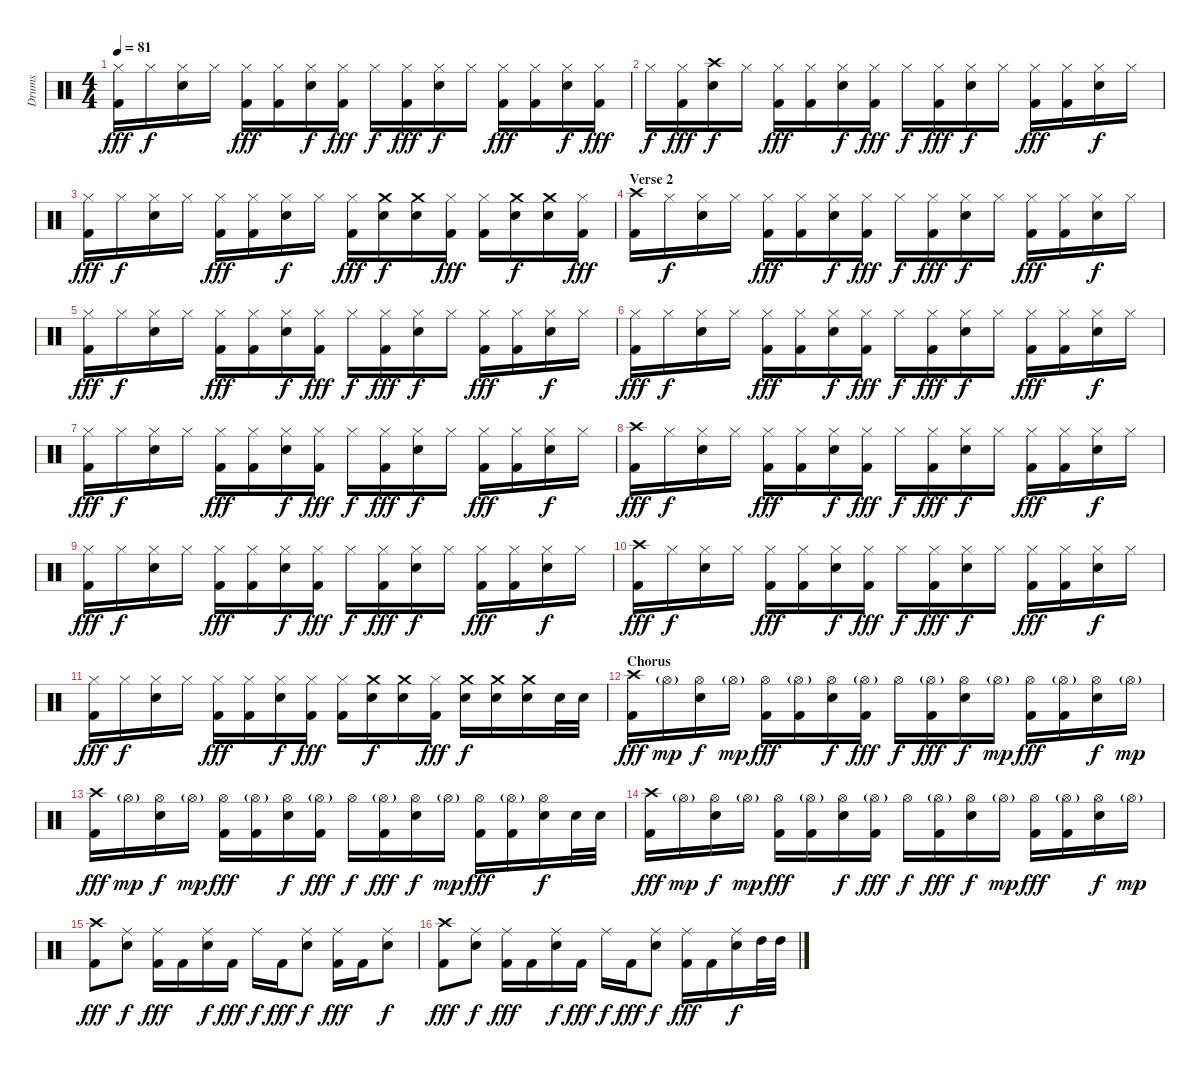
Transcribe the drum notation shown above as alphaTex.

\track ("Drums" "Drums") {instrument percussion}
\staff {score}
\articulation defaults
\ts (4 4)
\tempo 81
\clef neutral
\ks c
("Hi-Hat (closed)" "Kick (hit) 2").16{dy fff} "Hi-Hat (closed)".16{dy f} ("Hi-Hat (closed)" "Snare (hit) 2").16 "Hi-Hat (closed)".16 ("Hi-Hat (closed)" "Kick (hit) 2").16{dy fff} ("Hi-Hat (closed)" "Kick (hit) 2").16 ("Hi-Hat (closed)" "Snare (hit) 2").16{dy f} ("Hi-Hat (closed)" "Kick (hit) 2").16{dy fff} "Hi-Hat (closed)".16{dy f} ("Hi-Hat (closed)" "Kick (hit) 2").16{dy fff} ("Hi-Hat (closed)" "Snare (hit) 2").16{dy f} "Hi-Hat (closed)".16 ("Hi-Hat (closed)" "Kick (hit) 2").16{dy fff} ("Hi-Hat (closed)" "Kick (hit) 2").16 ("Hi-Hat (closed)" "Snare (hit) 2").16{dy f} ("Hi-Hat (closed)" "Kick (hit) 2").16{dy fff} |
"Hi-Hat (closed)".16{dy f} ("Hi-Hat (closed)" "Kick (hit) 2").16{dy fff} ("Crash high (hit)" "Snare (hit) 2").16{dy f} "Hi-Hat (closed)".16 ("Hi-Hat (closed)" "Kick (hit) 2").16{dy fff} ("Hi-Hat (closed)" "Kick (hit) 2").16 ("Hi-Hat (closed)" "Snare (hit) 2").16{dy f} ("Hi-Hat (closed)" "Kick (hit) 2").16{dy fff} "Hi-Hat (closed)".16{dy f} ("Hi-Hat (closed)" "Kick (hit) 2").16{dy fff} ("Hi-Hat (closed)" "Snare (hit) 2").16{dy f} "Hi-Hat (closed)".16 ("Hi-Hat (closed)" "Kick (hit) 2").16{dy fff} ("Hi-Hat (closed)" "Kick (hit) 2").16 ("Hi-Hat (closed)" "Snare (hit) 2").16{dy f} "Hi-Hat (closed)".16 |
("Hi-Hat (closed)" "Kick (hit) 2").16{dy fff} "Hi-Hat (closed)".16{dy f} ("Hi-Hat (closed)" "Snare (hit) 2").16 "Hi-Hat (closed)".16 ("Hi-Hat (closed)" "Kick (hit) 2").16{dy fff} ("Hi-Hat (closed)" "Kick (hit) 2").16 ("Hi-Hat (closed)" "Snare (hit) 2").16{dy f} "Hi-Hat (closed)".16 ("Hi-Hat (closed)" "Kick (hit) 2").16{dy fff} ("Crash medium (hit)" "Snare (hit) 2").16{dy f} ("Crash medium (hit)" "Snare (hit) 2").16 ("Hi-Hat (closed)" "Kick (hit) 2").16{dy fff} ("Hi-Hat (closed)" "Kick (hit) 2").16 ("Crash medium (hit)" "Snare (hit) 2").16{dy f} ("Crash medium (hit)" "Snare (hit) 2").16 ("Hi-Hat (closed)" "Kick (hit) 2").16{dy fff} |
\section ("" "Verse 2")
("Crash high (hit)" "Kick (hit) 2").16 "Hi-Hat (closed)".16{dy f} ("Hi-Hat (closed)" "Snare (hit) 2").16 "Hi-Hat (closed)".16 ("Hi-Hat (closed)" "Kick (hit) 2").16{dy fff} ("Hi-Hat (closed)" "Kick (hit) 2").16 ("Hi-Hat (closed)" "Snare (hit) 2").16{dy f} ("Hi-Hat (closed)" "Kick (hit) 2").16{dy fff} "Hi-Hat (closed)".16{dy f} ("Hi-Hat (closed)" "Kick (hit) 2").16{dy fff} ("Hi-Hat (closed)" "Snare (hit) 2").16{dy f} "Hi-Hat (closed)".16 ("Hi-Hat (closed)" "Kick (hit) 2").16{dy fff} ("Hi-Hat (closed)" "Kick (hit) 2").16 ("Hi-Hat (closed)" "Snare (hit) 2").16{dy f} "Hi-Hat (closed)".16 |
("Hi-Hat (closed)" "Kick (hit) 2").16{dy fff} "Hi-Hat (closed)".16{dy f} ("Hi-Hat (closed)" "Snare (hit) 2").16 "Hi-Hat (closed)".16 ("Hi-Hat (closed)" "Kick (hit) 2").16{dy fff} ("Hi-Hat (closed)" "Kick (hit) 2").16 ("Hi-Hat (closed)" "Snare (hit) 2").16{dy f} ("Hi-Hat (closed)" "Kick (hit) 2").16{dy fff} "Hi-Hat (closed)".16{dy f} ("Hi-Hat (closed)" "Kick (hit) 2").16{dy fff} ("Hi-Hat (closed)" "Snare (hit) 2").16{dy f} "Hi-Hat (closed)".16 ("Hi-Hat (closed)" "Kick (hit) 2").16{dy fff} ("Hi-Hat (closed)" "Kick (hit) 2").16 ("Hi-Hat (closed)" "Snare (hit) 2").16{dy f} "Hi-Hat (closed)".16 |
("Hi-Hat (closed)" "Kick (hit) 2").16{dy fff} "Hi-Hat (closed)".16{dy f} ("Hi-Hat (closed)" "Snare (hit) 2").16 "Hi-Hat (closed)".16 ("Hi-Hat (closed)" "Kick (hit) 2").16{dy fff} ("Hi-Hat (closed)" "Kick (hit) 2").16 ("Hi-Hat (closed)" "Snare (hit) 2").16{dy f} ("Hi-Hat (closed)" "Kick (hit) 2").16{dy fff} "Hi-Hat (closed)".16{dy f} ("Hi-Hat (closed)" "Kick (hit) 2").16{dy fff} ("Hi-Hat (closed)" "Snare (hit) 2").16{dy f} "Hi-Hat (closed)".16 ("Hi-Hat (closed)" "Kick (hit) 2").16{dy fff} ("Hi-Hat (closed)" "Kick (hit) 2").16 ("Hi-Hat (closed)" "Snare (hit) 2").16{dy f} "Hi-Hat (closed)".16 |
("Hi-Hat (closed)" "Kick (hit) 2").16{dy fff} "Hi-Hat (closed)".16{dy f} ("Hi-Hat (closed)" "Snare (hit) 2").16 "Hi-Hat (closed)".16 ("Hi-Hat (closed)" "Kick (hit) 2").16{dy fff} ("Hi-Hat (closed)" "Kick (hit) 2").16 ("Hi-Hat (closed)" "Snare (hit) 2").16{dy f} ("Hi-Hat (closed)" "Kick (hit) 2").16{dy fff} "Hi-Hat (closed)".16{dy f} ("Hi-Hat (closed)" "Kick (hit) 2").16{dy fff} ("Hi-Hat (closed)" "Snare (hit) 2").16{dy f} "Hi-Hat (closed)".16 ("Hi-Hat (closed)" "Kick (hit) 2").16{dy fff} ("Hi-Hat (closed)" "Kick (hit) 2").16 ("Hi-Hat (closed)" "Snare (hit) 2").16{dy f} "Hi-Hat (closed)".16 |
("Crash high (hit)" "Kick (hit) 2").16{dy fff} "Hi-Hat (closed)".16{dy f} ("Hi-Hat (closed)" "Snare (hit) 2").16 "Hi-Hat (closed)".16 ("Hi-Hat (closed)" "Kick (hit) 2").16{dy fff} ("Hi-Hat (closed)" "Kick (hit) 2").16 ("Hi-Hat (closed)" "Snare (hit) 2").16{dy f} ("Hi-Hat (closed)" "Kick (hit) 2").16{dy fff} "Hi-Hat (closed)".16{dy f} ("Hi-Hat (closed)" "Kick (hit) 2").16{dy fff} ("Hi-Hat (closed)" "Snare (hit) 2").16{dy f} "Hi-Hat (closed)".16 ("Hi-Hat (closed)" "Kick (hit) 2").16{dy fff} ("Hi-Hat (closed)" "Kick (hit) 2").16 ("Hi-Hat (closed)" "Snare (hit) 2").16{dy f} "Hi-Hat (closed)".16 |
("Hi-Hat (closed)" "Kick (hit) 2").16{dy fff} "Hi-Hat (closed)".16{dy f} ("Hi-Hat (closed)" "Snare (hit) 2").16 "Hi-Hat (closed)".16 ("Hi-Hat (closed)" "Kick (hit) 2").16{dy fff} ("Hi-Hat (closed)" "Kick (hit) 2").16 ("Hi-Hat (closed)" "Snare (hit) 2").16{dy f} ("Hi-Hat (closed)" "Kick (hit) 2").16{dy fff} "Hi-Hat (closed)".16{dy f} ("Hi-Hat (closed)" "Kick (hit) 2").16{dy fff} ("Hi-Hat (closed)" "Snare (hit) 2").16{dy f} "Hi-Hat (closed)".16 ("Hi-Hat (closed)" "Kick (hit) 2").16{dy fff} ("Hi-Hat (closed)" "Kick (hit) 2").16 ("Hi-Hat (closed)" "Snare (hit) 2").16{dy f} "Hi-Hat (closed)".16 |
("Crash high (hit)" "Kick (hit) 2").16{dy fff} "Hi-Hat (closed)".16{dy f} ("Hi-Hat (closed)" "Snare (hit) 2").16 "Hi-Hat (closed)".16 ("Hi-Hat (closed)" "Kick (hit) 2").16{dy fff} ("Hi-Hat (closed)" "Kick (hit) 2").16 ("Hi-Hat (closed)" "Snare (hit) 2").16{dy f} ("Hi-Hat (closed)" "Kick (hit) 2").16{dy fff} "Hi-Hat (closed)".16{dy f} ("Hi-Hat (closed)" "Kick (hit) 2").16{dy fff} ("Hi-Hat (closed)" "Snare (hit) 2").16{dy f} "Hi-Hat (closed)".16 ("Hi-Hat (closed)" "Kick (hit) 2").16{dy fff} ("Hi-Hat (closed)" "Kick (hit) 2").16 ("Hi-Hat (closed)" "Snare (hit) 2").16{dy f} "Hi-Hat (closed)".16 |
("Hi-Hat (closed)" "Kick (hit) 2").16{dy fff} "Hi-Hat (closed)".16{dy f} ("Hi-Hat (closed)" "Snare (hit) 2").16 "Hi-Hat (closed)".16 ("Hi-Hat (closed)" "Kick (hit) 2").16{dy fff} ("Hi-Hat (closed)" "Kick (hit) 2").16 ("Hi-Hat (closed)" "Snare (hit) 2").16{dy f} ("Hi-Hat (closed)" "Kick (hit) 2").16{dy fff} ("Hi-Hat (closed)" "Kick (hit) 2").16 ("Crash medium (hit)" "Snare (hit) 2").16{dy f} ("Crash medium (hit)" "Snare (hit) 2").16 ("Hi-Hat (closed)" "Kick (hit) 2").16{dy fff} ("Crash medium (hit)" "Snare (hit) 2").16{dy f} ("Crash medium (hit)" "Snare (hit) 2").16 ("Crash medium (hit)" "Snare (hit) 2").16 "Snare (hit) 2".32 "Snare (hit) 2".32 |
\section ("" "Chorus")
("Crash high (hit)" "Kick (hit) 2").16{dy fff} "Hi-Hat (open)"{g}.16{dy mp} ("Hi-Hat (open)" "Snare (hit) 2").16{dy f} "Hi-Hat (open)"{g}.16{dy mp} ("Hi-Hat (open)" "Kick (hit) 2").16{dy fff} ("Hi-Hat (open)"{g} "Kick (hit) 2").16 ("Hi-Hat (open)" "Snare (hit) 2").16{dy f} ("Hi-Hat (open)"{g} "Kick (hit) 2").16{dy fff} "Hi-Hat (open)".16{dy f} ("Hi-Hat (open)"{g} "Kick (hit) 2").16{dy fff} ("Hi-Hat (open)" "Snare (hit) 2").16{dy f} "Hi-Hat (open)"{g}.16{dy mp} ("Hi-Hat (open)" "Kick (hit) 2").16{dy fff} ("Hi-Hat (open)"{g} "Kick (hit) 2").16 ("Hi-Hat (open)" "Snare (hit) 2").16{dy f} "Hi-Hat (open)"{g}.16{dy mp} |
("Crash high (hit)" "Kick (hit) 2").16{dy fff} "Hi-Hat (open)"{g}.16{dy mp} ("Hi-Hat (open)" "Snare (hit) 2").16{dy f} "Hi-Hat (open)"{g}.16{dy mp} ("Hi-Hat (open)" "Kick (hit) 2").16{dy fff} ("Hi-Hat (open)"{g} "Kick (hit) 2").16 ("Hi-Hat (open)" "Snare (hit) 2").16{dy f} ("Hi-Hat (open)"{g} "Kick (hit) 2").16{dy fff} "Hi-Hat (open)".16{dy f} ("Hi-Hat (open)"{g} "Kick (hit) 2").16{dy fff} ("Hi-Hat (open)" "Snare (hit) 2").16{dy f} "Hi-Hat (open)"{g}.16{dy mp} ("Hi-Hat (open)" "Kick (hit) 2").16{dy fff} ("Hi-Hat (open)"{g} "Kick (hit) 2").16 ("Hi-Hat (open)" "Snare (hit) 2").16{dy f} "Snare (hit) 2".32 "Snare (hit) 2".32 |
("Crash high (hit)" "Kick (hit) 2").16{dy fff} "Hi-Hat (open)"{g}.16{dy mp} ("Hi-Hat (open)" "Snare (hit) 2").16{dy f} "Hi-Hat (open)"{g}.16{dy mp} ("Hi-Hat (open)" "Kick (hit) 2").16{dy fff} ("Hi-Hat (open)"{g} "Kick (hit) 2").16 ("Hi-Hat (open)" "Snare (hit) 2").16{dy f} ("Hi-Hat (open)"{g} "Kick (hit) 2").16{dy fff} "Hi-Hat (open)".16{dy f} ("Hi-Hat (open)"{g} "Kick (hit) 2").16{dy fff} ("Hi-Hat (open)" "Snare (hit) 2").16{dy f} "Hi-Hat (open)"{g}.16{dy mp} ("Hi-Hat (open)" "Kick (hit) 2").16{dy fff} ("Hi-Hat (open)"{g} "Kick (hit) 2").16 ("Hi-Hat (open)" "Snare (hit) 2").16{dy f} "Hi-Hat (open)"{g}.16{dy mp} |
("Crash high (hit)" "Kick (hit) 2").8{dy fff} ("Ride (middle)" "Snare (hit) 2").8{dy f} ("Ride (middle)" "Kick (hit) 2").16{dy fff} "Kick (hit) 2".16 ("Ride (middle)" "Snare (hit) 2").16{dy f} "Kick (hit) 2".16{dy fff} "Ride (middle)".16{dy f} "Kick (hit) 2".16{dy fff} ("Ride (middle)" "Snare (hit) 2").8{dy f} ("Ride (middle)" "Kick (hit) 2").16{dy fff} "Kick (hit) 2".16 ("Ride (middle)" "Snare (hit) 2").8{dy f} |
("Crash high (hit)" "Kick (hit) 2").8{dy fff} ("Ride (middle)" "Snare (hit) 2").8{dy f} ("Ride (middle)" "Kick (hit) 2").16{dy fff} "Kick (hit) 2".16 ("Ride (middle)" "Snare (hit) 2").16{dy f} "Kick (hit) 2".16{dy fff} "Ride (middle)".16{dy f} "Kick (hit) 2".16{dy fff} ("Ride (middle)" "Snare (hit) 2").8{dy f} ("Ride (middle)" "Kick (hit) 2").16{dy fff} "Kick (hit) 2".16 ("Ride (middle)" "Snare (hit) 2").16{dy f} "High Tom (hit)".32 "High Tom (hit)".32
